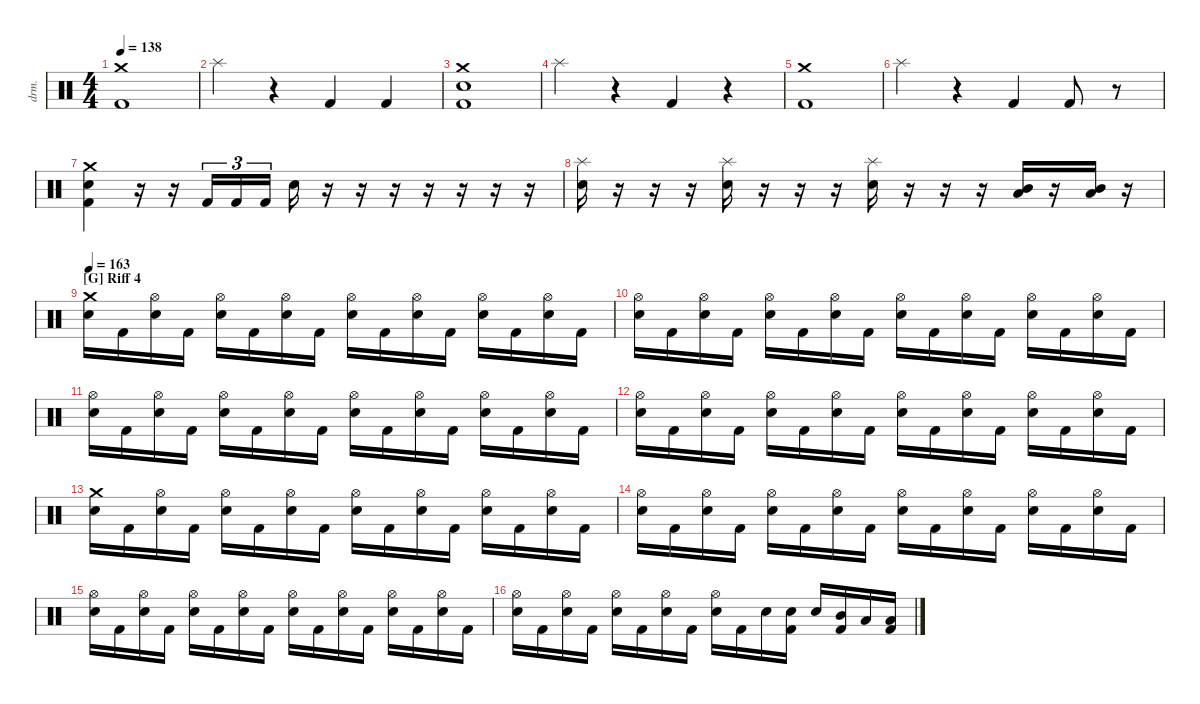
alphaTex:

\hideDynamics
\bracketExtendMode nobrackets
\track ("Drums" "drm.") {instrument percussion}
\staff {score}
\articulation defaults
\ts (4 4)
\tempo 138
\clef neutral
\ks c
("Kick (hit) 2" "Crash medium (hit)").1{dy mf beam Down} |
"Splash (hit)".4{beam Down} r.4{beam Down} "Kick (hit) 2".4{beam Up} "Kick (hit) 2".4{beam Up} |
("Kick (hit) 2" "Crash medium (hit)" "Snare (hit) 2").1{beam Down} |
"Splash (hit)".4{beam Down} r.4{beam Down} "Kick (hit) 2".4{beam Up} r.4{beam Down} |
("Kick (hit) 2" "Crash medium (hit)").1{beam Down} |
"Splash (hit)".4{beam Down} r.4{beam Down} "Kick (hit) 2".4{beam Up} "Kick (hit) 2".8{beam Up} r.8{beam Down} |
("Kick (hit) 2" "Crash medium (hit)" "Snare (hit) 2").4{beam Down} r.16{beam Down} r.16{beam Down} "Kick (hit) 2".16{tu (3 2) beam Up} "Kick (hit) 2".16{tu (3 2) beam Up} "Kick (hit) 2".16{tu (3 2) beam Up} "Snare (hit) 2".16{beam Down} r.16{beam Down} r.16{beam Down} r.16{beam Down} r.16{beam Down} r.16{beam Down} r.16{beam Down} r.16{beam Down} |
("Splash (hit)" "Snare (hit) 2").16{beam Down} r.16{beam Down} r.16{beam Down} r.16{beam Down} ("Snare (hit) 2" "Splash (hit)").16{beam Down} r.16{beam Down} r.16{beam Down} r.16{beam Down} ("Snare (hit) 2" "Splash (hit)").16{beam Down} r.16{beam Down} r.16{beam Down} r.16{beam Down} ("Low Tom (hit)" "Mid Tom (hit)").16{beam Up} r.16{beam Up} ("Low Tom (hit)" "Mid Tom (hit)").16{beam Up} r.16{beam Down} |
\section ("G" "Riff 4")
\tempo 163
("Snare (hit) 2" "Crash medium (hit)").16{beam Down} "Kick (hit) 2".16{beam Down} ("Snare (hit) 2" "Hi-Hat (open)").16{beam Down} "Kick (hit) 2".16{beam Down} ("Snare (hit) 2" "Hi-Hat (open)").16{beam Down} "Kick (hit) 2".16{beam Down} ("Snare (hit) 2" "Hi-Hat (open)").16{beam Down} "Kick (hit) 2".16{beam Down} ("Snare (hit) 2" "Hi-Hat (open)").16{beam Down} "Kick (hit) 2".16{beam Down} ("Snare (hit) 2" "Hi-Hat (open)").16{beam Down} "Kick (hit) 2".16{beam Down} ("Snare (hit) 2" "Hi-Hat (open)").16{beam Down} "Kick (hit) 2".16{beam Down} ("Snare (hit) 2" "Hi-Hat (open)").16{beam Down} "Kick (hit) 2".16{beam Down} |
("Snare (hit) 2" "Hi-Hat (open)").16{beam Down} "Kick (hit) 2".16{beam Down} ("Snare (hit) 2" "Hi-Hat (open)").16{beam Down} "Kick (hit) 2".16{beam Down} ("Snare (hit) 2" "Hi-Hat (open)").16{beam Down} "Kick (hit) 2".16{beam Down} ("Snare (hit) 2" "Hi-Hat (open)").16{beam Down} "Kick (hit) 2".16{beam Down} ("Snare (hit) 2" "Hi-Hat (open)").16{beam Down} "Kick (hit) 2".16{beam Down} ("Snare (hit) 2" "Hi-Hat (open)").16{beam Down} "Kick (hit) 2".16{beam Down} ("Snare (hit) 2" "Hi-Hat (open)").16{beam Down} "Kick (hit) 2".16{beam Down} ("Snare (hit) 2" "Hi-Hat (open)").16{beam Down} "Kick (hit) 2".16{beam Down} |
("Snare (hit) 2" "Hi-Hat (open)").16{beam Down} "Kick (hit) 2".16{beam Down} ("Snare (hit) 2" "Hi-Hat (open)").16{beam Down} "Kick (hit) 2".16{beam Down} ("Snare (hit) 2" "Hi-Hat (open)").16{beam Down} "Kick (hit) 2".16{beam Down} ("Snare (hit) 2" "Hi-Hat (open)").16{beam Down} "Kick (hit) 2".16{beam Down} ("Snare (hit) 2" "Hi-Hat (open)").16{beam Down} "Kick (hit) 2".16{beam Down} ("Snare (hit) 2" "Hi-Hat (open)").16{beam Down} "Kick (hit) 2".16{beam Down} ("Snare (hit) 2" "Hi-Hat (open)").16{beam Down} "Kick (hit) 2".16{beam Down} ("Snare (hit) 2" "Hi-Hat (open)").16{beam Down} "Kick (hit) 2".16{beam Down} |
("Snare (hit) 2" "Hi-Hat (open)").16{beam Down} "Kick (hit) 2".16{beam Down} ("Snare (hit) 2" "Hi-Hat (open)").16{beam Down} "Kick (hit) 2".16{beam Down} ("Snare (hit) 2" "Hi-Hat (open)").16{beam Down} "Kick (hit) 2".16{beam Down} ("Snare (hit) 2" "Hi-Hat (open)").16{beam Down} "Kick (hit) 2".16{beam Down} ("Snare (hit) 2" "Hi-Hat (open)").16{beam Down} "Kick (hit) 2".16{beam Down} ("Snare (hit) 2" "Hi-Hat (open)").16{beam Down} "Kick (hit) 2".16{beam Down} ("Snare (hit) 2" "Hi-Hat (open)").16{beam Down} "Kick (hit) 2".16{beam Down} ("Snare (hit) 2" "Hi-Hat (open)").16{beam Down} "Kick (hit) 2".16{beam Down} |
("Snare (hit) 2" "Crash medium (hit)").16{beam Down} "Kick (hit) 2".16{beam Down} ("Snare (hit) 2" "Hi-Hat (open)").16{beam Down} "Kick (hit) 2".16{beam Down} ("Snare (hit) 2" "Hi-Hat (open)").16{beam Down} "Kick (hit) 2".16{beam Down} ("Snare (hit) 2" "Hi-Hat (open)").16{beam Down} "Kick (hit) 2".16{beam Down} ("Snare (hit) 2" "Hi-Hat (open)").16{beam Down} "Kick (hit) 2".16{beam Down} ("Snare (hit) 2" "Hi-Hat (open)").16{beam Down} "Kick (hit) 2".16{beam Down} ("Snare (hit) 2" "Hi-Hat (open)").16{beam Down} "Kick (hit) 2".16{beam Down} ("Snare (hit) 2" "Hi-Hat (open)").16{beam Down} "Kick (hit) 2".16{beam Down} |
("Snare (hit) 2" "Hi-Hat (open)").16{beam Down} "Kick (hit) 2".16{beam Down} ("Snare (hit) 2" "Hi-Hat (open)").16{beam Down} "Kick (hit) 2".16{beam Down} ("Snare (hit) 2" "Hi-Hat (open)").16{beam Down} "Kick (hit) 2".16{beam Down} ("Snare (hit) 2" "Hi-Hat (open)").16{beam Down} "Kick (hit) 2".16{beam Down} ("Snare (hit) 2" "Hi-Hat (open)").16{beam Down} "Kick (hit) 2".16{beam Down} ("Snare (hit) 2" "Hi-Hat (open)").16{beam Down} "Kick (hit) 2".16{beam Down} ("Snare (hit) 2" "Hi-Hat (open)").16{beam Down} "Kick (hit) 2".16{beam Down} ("Snare (hit) 2" "Hi-Hat (open)").16{beam Down} "Kick (hit) 2".16{beam Down} |
("Snare (hit) 2" "Hi-Hat (open)").16{beam Down} "Kick (hit) 2".16{beam Down} ("Snare (hit) 2" "Hi-Hat (open)").16{beam Down} "Kick (hit) 2".16{beam Down} ("Snare (hit) 2" "Hi-Hat (open)").16{beam Down} "Kick (hit) 2".16{beam Down} ("Snare (hit) 2" "Hi-Hat (open)").16{beam Down} "Kick (hit) 2".16{beam Down} ("Snare (hit) 2" "Hi-Hat (open)").16{beam Down} "Kick (hit) 2".16{beam Down} ("Snare (hit) 2" "Hi-Hat (open)").16{beam Down} "Kick (hit) 2".16{beam Down} ("Snare (hit) 2" "Hi-Hat (open)").16{beam Down} "Kick (hit) 2".16{beam Down} ("Snare (hit) 2" "Hi-Hat (open)").16{beam Down} "Kick (hit) 2".16{beam Down} |
("Snare (hit) 2" "Hi-Hat (open)").16{beam Down} "Kick (hit) 2".16{beam Down} ("Snare (hit) 2" "Hi-Hat (open)").16{beam Down} "Kick (hit) 2".16{beam Down} ("Snare (hit) 2" "Hi-Hat (open)").16{beam Down} "Kick (hit) 2".16{beam Down} ("Snare (hit) 2" "Hi-Hat (open)").16{beam Down} "Kick (hit) 2".16{beam Down} ("Snare (hit) 2" "Hi-Hat (open)").16{beam Down} "Kick (hit) 2".16{beam Down} "Snare (hit) 2".16{beam Down} ("Kick (hit) 2" "Snare (hit) 2").16{beam Down} "Snare (hit) 2".16{beam Up} ("Kick (hit) 2" "Mid Tom (hit)").16{beam Up} "Low Tom (hit)".16{beam Up} ("Kick (hit) 2" "Low Tom (hit)").16{beam Up}
